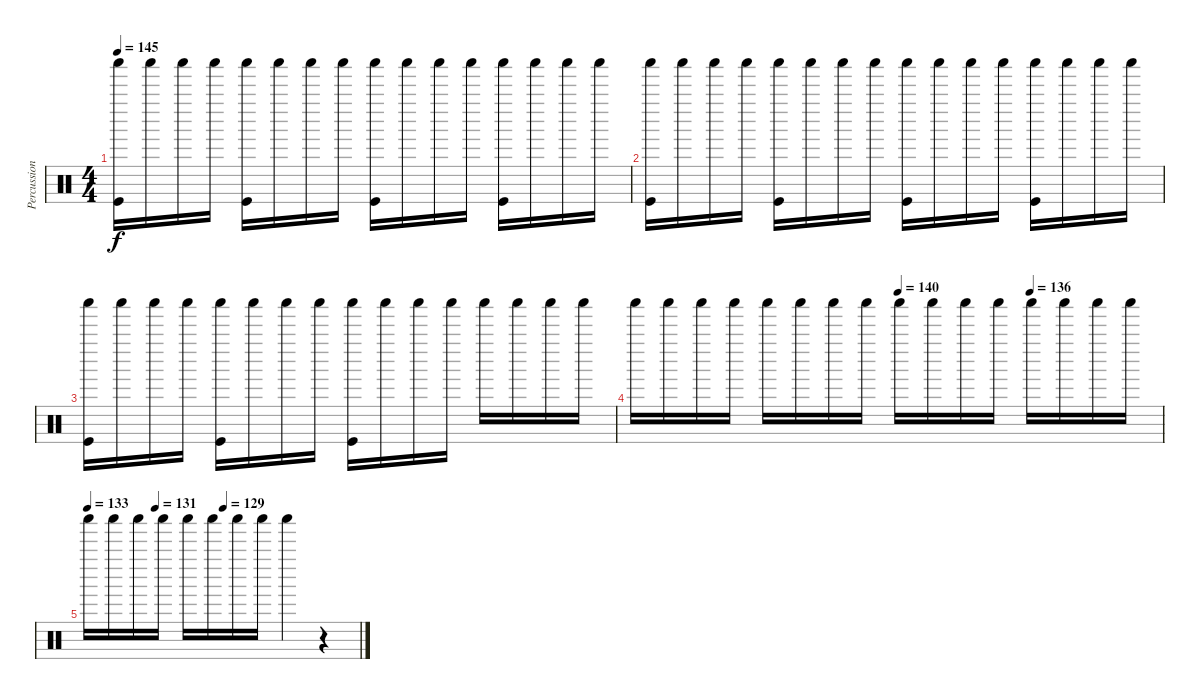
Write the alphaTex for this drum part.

\track ("Percussions" "Percussion") {instrument percussion}
\staff {score}
\articulation defaults
\ts (4 4)
\tempo 145
\clef neutral
\ks c
("Shaker (hit)" "Kick (hit)").16{dy f} "Shaker (hit)".16 "Shaker (hit)".16 "Shaker (hit)".16 ("Shaker (hit)" "Kick (hit)").16 "Shaker (hit)".16 "Shaker (hit)".16 "Shaker (hit)".16 ("Shaker (hit)" "Kick (hit)").16 "Shaker (hit)".16 "Shaker (hit)".16 "Shaker (hit)".16 ("Shaker (hit)" "Kick (hit)").16 "Shaker (hit)".16 "Shaker (hit)".16 "Shaker (hit)".16 |
("Shaker (hit)" "Kick (hit)").16 "Shaker (hit)".16 "Shaker (hit)".16 "Shaker (hit)".16 ("Shaker (hit)" "Kick (hit)").16 "Shaker (hit)".16 "Shaker (hit)".16 "Shaker (hit)".16 ("Shaker (hit)" "Kick (hit)").16 "Shaker (hit)".16 "Shaker (hit)".16 "Shaker (hit)".16 ("Shaker (hit)" "Kick (hit)").16 "Shaker (hit)".16 "Shaker (hit)".16 "Shaker (hit)".16 |
("Shaker (hit)" "Kick (hit)").16 "Shaker (hit)".16 "Shaker (hit)".16 "Shaker (hit)".16 ("Shaker (hit)" "Kick (hit)").16 "Shaker (hit)".16 "Shaker (hit)".16 "Shaker (hit)".16 ("Shaker (hit)" "Kick (hit)").16 "Shaker (hit)".16 "Shaker (hit)".16 "Shaker (hit)".16 "Shaker (hit)".16 "Shaker (hit)".16 "Shaker (hit)".16 "Shaker (hit)".16 |
\tempo (140 0.5)
\tempo (136 0.75)
"Shaker (hit)".16 "Shaker (hit)".16 "Shaker (hit)".16 "Shaker (hit)".16 "Shaker (hit)".16 "Shaker (hit)".16 "Shaker (hit)".16 "Shaker (hit)".16 "Shaker (hit)".16 "Shaker (hit)".16 "Shaker (hit)".16 "Shaker (hit)".16 "Shaker (hit)".16 "Shaker (hit)".16 "Shaker (hit)".16 "Shaker (hit)".16 |
\tempo 133
\tempo (131 0.25)
\tempo (129 0.5)
"Shaker (hit)".16 "Shaker (hit)".16 "Shaker (hit)".16 "Shaker (hit)".16 "Shaker (hit)".16 "Shaker (hit)".16 "Shaker (hit)".16 "Shaker (hit)".16 "Shaker (hit)".4 r.4
